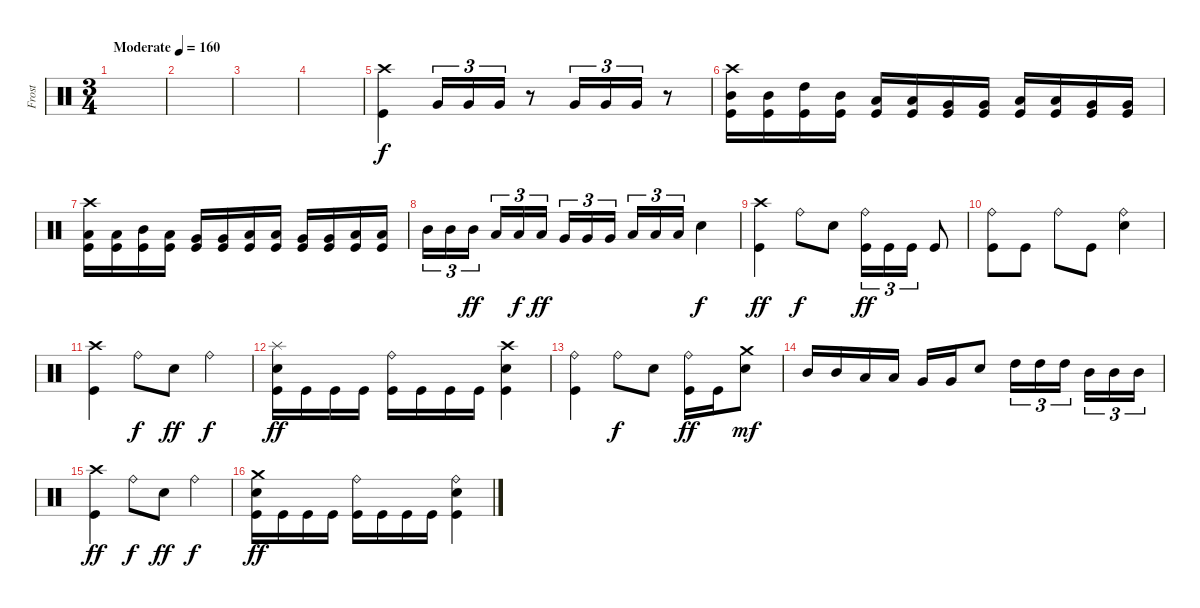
\track ("Frost" "Frost") {instrument percussion}
\staff {score}
\articulation defaults
\ts (3 4)
\tempo (160 "Moderate")
\clef neutral
\ks c
|
|
|
|
("Crash high (hit)" "Kick (hit)").4 "Very Low Tom (hit)".16{tu (3 2)} "Very Low Tom (hit)".16{tu (3 2)} "Very Low Tom (hit)".16{tu (3 2)} r.8 "Very Low Tom (hit)".16{tu (3 2)} "Very Low Tom (hit)".16{tu (3 2)} "Very Low Tom (hit)".16{tu (3 2)} r.8 |
("Crash high (hit)" "Mid Tom (hit)" "Kick (hit)").16 ("Mid Tom (hit)" "Kick (hit)").16 ("High Tom (hit)" "Kick (hit)").16 ("Mid Tom (hit)" "Kick (hit)").16 ("Low Tom (hit)" "Kick (hit)").16 ("Low Tom (hit)" "Kick (hit)").16 ("Very Low Tom (hit)" "Kick (hit)").16 ("Very Low Tom (hit)" "Kick (hit)").16 ("Low Tom (hit)" "Kick (hit)").16 ("Low Tom (hit)" "Kick (hit)").16 ("Very Low Tom (hit)" "Kick (hit)").16 ("Very Low Tom (hit)" "Kick (hit)").16 |
("Crash high (hit)" "Low Tom (hit)" "Kick (hit)").16 ("Low Tom (hit)" "Kick (hit)").16 ("Mid Tom (hit)" "Kick (hit)").16 ("Low Tom (hit)" "Kick (hit)").16 ("Very Low Tom (hit)" "Kick (hit)").16 ("Very Low Tom (hit)" "Kick (hit)").16 ("Low Floor Tom (hit)" "Kick (hit)").16 ("Low Floor Tom (hit)" "Kick (hit)").16 ("Very Low Tom (hit)" "Kick (hit)").16 ("Very Low Tom (hit)" "Kick (hit)").16 ("Low Floor Tom (hit)" "Kick (hit)").16 ("Low Floor Tom (hit)" "Kick (hit)").16 |
"Mid Tom (hit)".16{tu (3 2)} "Mid Tom (hit)".16{tu (3 2) dy f} "Mid Tom (hit)".16{tu (3 2) dy ff beam splitsecondary} "Low Tom (hit)".16{tu (3 2)} "Low Tom (hit)".16{tu (3 2) dy f} "Low Tom (hit)".16{tu (3 2) dy ff} "Very Low Tom (hit)".16{tu (3 2)} "Very Low Tom (hit)".16{tu (3 2)} "Very Low Tom (hit)".16{tu (3 2) beam splitsecondary} "Low Floor Tom (hit)".16{tu (3 2)} "Low Floor Tom (hit)".16{tu (3 2)} "Low Floor Tom (hit)".16{tu (3 2)} "Snare (hit) 2".4{dy f} |
("Crash high (hit)" "Kick (hit)").4{dy ff} "Ride (bell)".8{dy f} "Snare (hit) 2".8 ("Ride (bell)" "Kick (hit)").16{tu (3 2) dy ff} "Kick (hit)".16{tu (3 2)} "Kick (hit)".16{tu (3 2)} "Kick (hit)".8 |
("Ride (bell)" "Kick (hit)").8 "Kick (hit)".8 "Ride (bell)".8 "Kick (hit)".8 ("Ride (bell)" "Snare (hit) 2").4 |
("Crash high (hit)" "Kick (hit)").4 "Ride (bell)".8{dy f} "Snare (hit) 2".8{dy ff} "Ride (bell)".4{dy f} |
("Splash (hit)" "Snare (hit) 2" "Kick (hit)").16{dy ff} "Kick (hit)".16 "Kick (hit)".16 "Kick (hit)".16 ("Ride (bell)" "Kick (hit)").16 "Kick (hit)".16 "Kick (hit)".16 "Kick (hit)".16 ("Crash high (hit)" "Snare (hit) 2" "Kick (hit)").4 |
("Ride (bell)" "Kick (hit)").4 "Ride (bell)".8{dy f} "Snare (hit) 2".8 ("Ride (bell)" "Kick (hit)").16{dy ff} "Kick (hit)".16 ("Crash medium (hit)" "Snare (hit) 2").8{dy mf} |
"Mid Tom (hit)".16 "Mid Tom (hit)".16 "Low Tom (hit)".16 "Low Tom (hit)".16 "Very Low Tom (hit)".16 "Very Low Tom (hit)".16 "Snare (hit) 2".8 "High Tom (hit)".16{tu (3 2)} "High Tom (hit)".16{tu (3 2)} "High Tom (hit)".16{tu (3 2) beam splitsecondary} "Mid Tom (hit)".16{tu (3 2)} "Mid Tom (hit)".16{tu (3 2)} "Mid Tom (hit)".16{tu (3 2)} |
("Crash high (hit)" "Kick (hit)").4{dy ff} "Ride (bell)".8{dy f} "Snare (hit) 2".8{dy ff} "Ride (bell)".4{dy f} |
("Crash medium (hit)" "Snare (hit) 2" "Kick (hit)").16{dy ff} "Kick (hit)".16 "Kick (hit)".16 "Kick (hit)".16 ("Ride (bell)" "Kick (hit)").16 "Kick (hit)".16 "Kick (hit)".16 "Kick (hit)".16 ("Ride (bell)" "Snare (hit) 2" "Kick (hit)").4
